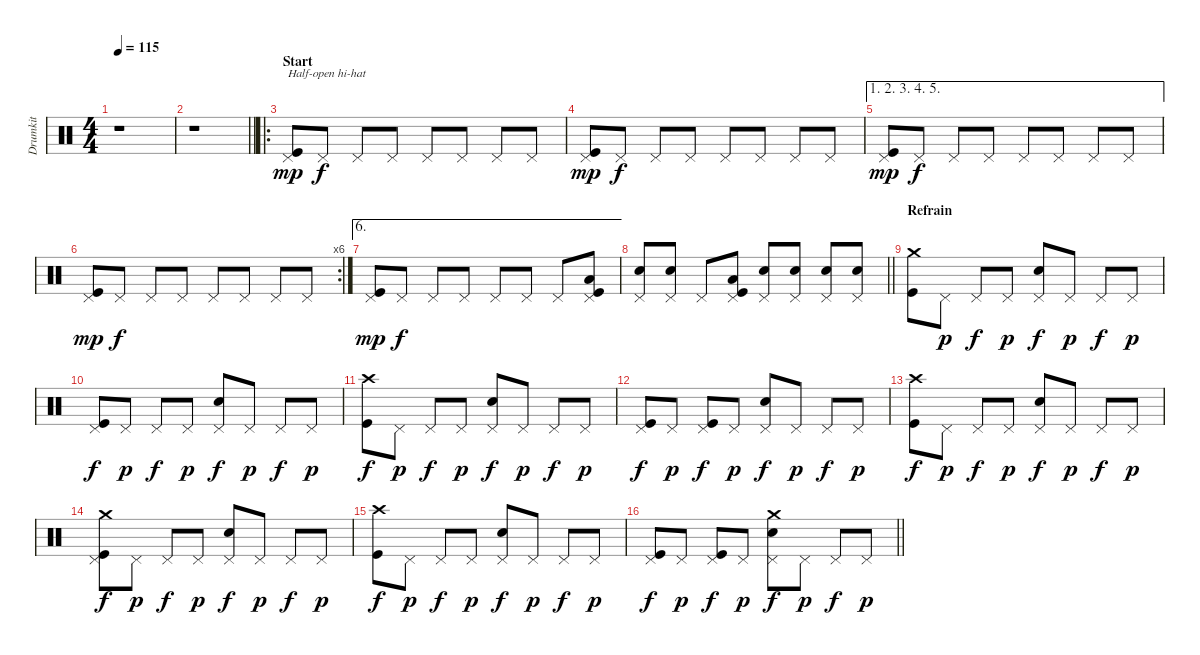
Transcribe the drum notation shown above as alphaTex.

\track ("Drumkit" "Drumkit") {instrument percussion}
\staff {score}
\articulation defaults
\ts (4 4)
\tempo 115
\clef neutral
\ks c
r.1{dy mp} |
\barLineRight lightlight
r.1 |
\ro
\section ("" "Start")
("Kick (hit)" "Pedal Hi-Hat (hit)").8{txt "Half-open hi-hat"} "Pedal Hi-Hat (hit)".8{dy f} "Pedal Hi-Hat (hit)".8 "Pedal Hi-Hat (hit)".8 "Pedal Hi-Hat (hit)".8 "Pedal Hi-Hat (hit)".8 "Pedal Hi-Hat (hit)".8 "Pedal Hi-Hat (hit)".8 |
("Kick (hit)" "Pedal Hi-Hat (hit)").8{dy mp} "Pedal Hi-Hat (hit)".8{dy f} "Pedal Hi-Hat (hit)".8 "Pedal Hi-Hat (hit)".8 "Pedal Hi-Hat (hit)".8 "Pedal Hi-Hat (hit)".8 "Pedal Hi-Hat (hit)".8 "Pedal Hi-Hat (hit)".8 |
\ae (1 2 3 4 5)
("Kick (hit)" "Pedal Hi-Hat (hit)").8{dy mp} "Pedal Hi-Hat (hit)".8{dy f} "Pedal Hi-Hat (hit)".8 "Pedal Hi-Hat (hit)".8 "Pedal Hi-Hat (hit)".8 "Pedal Hi-Hat (hit)".8 "Pedal Hi-Hat (hit)".8 "Pedal Hi-Hat (hit)".8 |
\rc 6
("Kick (hit)" "Pedal Hi-Hat (hit)").8{dy mp} "Pedal Hi-Hat (hit)".8{dy f} "Pedal Hi-Hat (hit)".8 "Pedal Hi-Hat (hit)".8 "Pedal Hi-Hat (hit)".8 "Pedal Hi-Hat (hit)".8 "Pedal Hi-Hat (hit)".8 "Pedal Hi-Hat (hit)".8 |
\ae 6
("Kick (hit)" "Pedal Hi-Hat (hit)").8{dy mp} "Pedal Hi-Hat (hit)".8{dy f} "Pedal Hi-Hat (hit)".8 "Pedal Hi-Hat (hit)".8 "Pedal Hi-Hat (hit)".8 "Pedal Hi-Hat (hit)".8 "Pedal Hi-Hat (hit)".8 ("Kick (hit)" "Low Tom (hit)" "Pedal Hi-Hat (hit)").8 |
\barLineRight lightlight
("Pedal Hi-Hat (hit)" "Snare (hit) 2").8 ("Pedal Hi-Hat (hit)" "Snare (hit) 2").8 "Pedal Hi-Hat (hit)".8 ("Kick (hit)" "Low Tom (hit)" "Pedal Hi-Hat (hit)").8 ("Pedal Hi-Hat (hit)" "Snare (hit) 2").8 ("Pedal Hi-Hat (hit)" "Snare (hit) 2").8 ("Pedal Hi-Hat (hit)" "Snare (hit) 2").8 ("Pedal Hi-Hat (hit)" "Snare (hit) 2").8 |
\section ("" "Refrain")
("Kick (hit)" "Crash medium (hit)").8 "Pedal Hi-Hat (hit)".8{dy p} "Pedal Hi-Hat (hit)".8{dy f} "Pedal Hi-Hat (hit)".8{dy p} ("Pedal Hi-Hat (hit)" "Snare (hit) 2").8{dy f} "Pedal Hi-Hat (hit)".8{dy p} "Pedal Hi-Hat (hit)".8{dy f} "Pedal Hi-Hat (hit)".8{dy p} |
("Kick (hit)" "Pedal Hi-Hat (hit)").8{dy f} "Pedal Hi-Hat (hit)".8{dy p} "Pedal Hi-Hat (hit)".8{dy f} "Pedal Hi-Hat (hit)".8{dy p} ("Pedal Hi-Hat (hit)" "Snare (hit) 2").8{dy f} "Pedal Hi-Hat (hit)".8{dy p} "Pedal Hi-Hat (hit)".8{dy f} "Pedal Hi-Hat (hit)".8{dy p} |
("Kick (hit)" "Crash high (hit)").8{dy f} "Pedal Hi-Hat (hit)".8{dy p} "Pedal Hi-Hat (hit)".8{dy f} "Pedal Hi-Hat (hit)".8{dy p} ("Pedal Hi-Hat (hit)" "Snare (hit) 2").8{dy f} "Pedal Hi-Hat (hit)".8{dy p} "Pedal Hi-Hat (hit)".8{dy f} "Pedal Hi-Hat (hit)".8{dy p} |
("Kick (hit)" "Pedal Hi-Hat (hit)").8{dy f} "Pedal Hi-Hat (hit)".8{dy p} ("Kick (hit)" "Pedal Hi-Hat (hit)").8{dy f} "Pedal Hi-Hat (hit)".8{dy p} ("Pedal Hi-Hat (hit)" "Snare (hit) 2").8{dy f} "Pedal Hi-Hat (hit)".8{dy p} "Pedal Hi-Hat (hit)".8{dy f} "Pedal Hi-Hat (hit)".8{dy p} |
("Kick (hit)" "Crash high (hit)").8{dy f} "Pedal Hi-Hat (hit)".8{dy p} "Pedal Hi-Hat (hit)".8{dy f} "Pedal Hi-Hat (hit)".8{dy p} ("Pedal Hi-Hat (hit)" "Snare (hit) 2").8{dy f} "Pedal Hi-Hat (hit)".8{dy p} "Pedal Hi-Hat (hit)".8{dy f} "Pedal Hi-Hat (hit)".8{dy p} |
("Kick (hit)" "Crash medium (hit)" "Pedal Hi-Hat (hit)").8{dy f} "Pedal Hi-Hat (hit)".8{dy p} "Pedal Hi-Hat (hit)".8{dy f} "Pedal Hi-Hat (hit)".8{dy p} ("Pedal Hi-Hat (hit)" "Snare (hit) 2").8{dy f} "Pedal Hi-Hat (hit)".8{dy p} "Pedal Hi-Hat (hit)".8{dy f} "Pedal Hi-Hat (hit)".8{dy p} |
("Kick (hit)" "Crash high (hit)").8{dy f} "Pedal Hi-Hat (hit)".8{dy p} "Pedal Hi-Hat (hit)".8{dy f} "Pedal Hi-Hat (hit)".8{dy p} ("Pedal Hi-Hat (hit)" "Snare (hit) 2").8{dy f} "Pedal Hi-Hat (hit)".8{dy p} "Pedal Hi-Hat (hit)".8{dy f} "Pedal Hi-Hat (hit)".8{dy p} |
\barLineRight lightlight
("Kick (hit)" "Pedal Hi-Hat (hit)").8{dy f} "Pedal Hi-Hat (hit)".8{dy p} ("Kick (hit)" "Pedal Hi-Hat (hit)").8{dy f} "Pedal Hi-Hat (hit)".8{dy p} ("Crash medium (hit)" "Pedal Hi-Hat (hit)" "Snare (hit) 2").8{dy f} "Pedal Hi-Hat (hit)".8{dy p} "Pedal Hi-Hat (hit)".8{dy f} "Pedal Hi-Hat (hit)".8{dy p}
